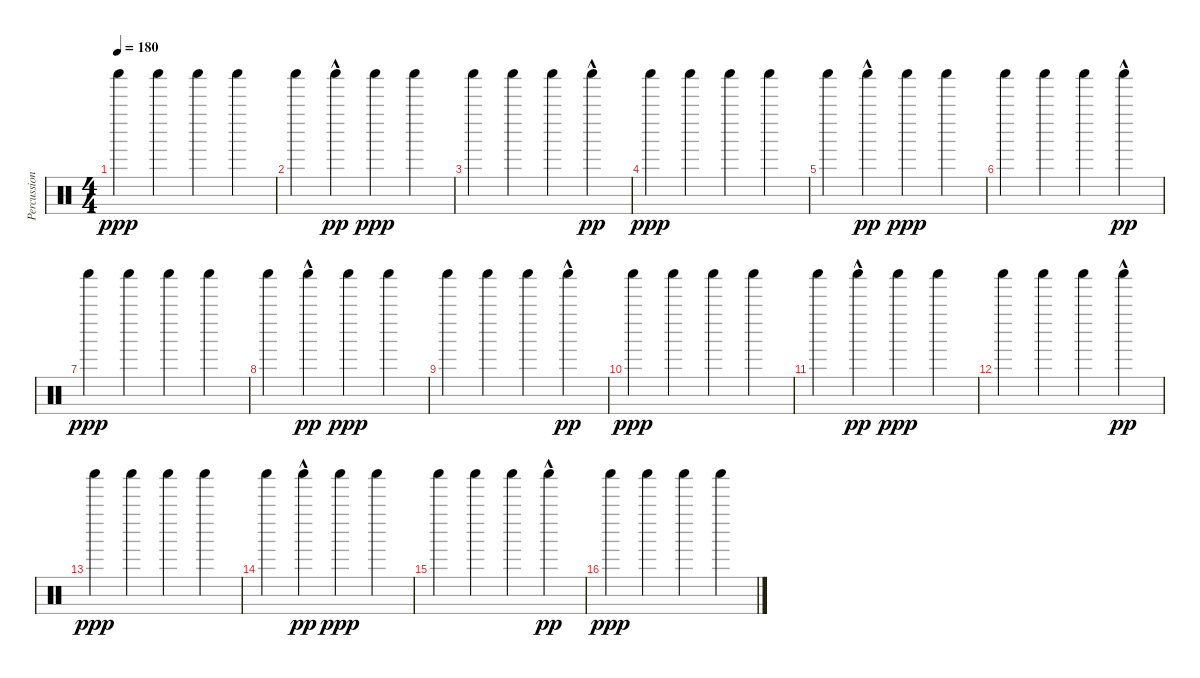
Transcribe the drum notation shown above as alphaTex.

\track ("Percussion" "Percussion") {instrument percussion}
\staff {score}
\articulation defaults
\ts (4 4)
\tempo 180
\clef neutral
\ks c "Shaker (hit)".4{dy ppp} "Shaker (hit)".4 "Shaker (hit)".4 "Shaker (hit)".4
|
"Shaker (hit)".4 "Shaker (hit)"{hac}.4{dy pp} "Shaker (hit)".4{dy ppp} "Shaker (hit)".4 |
"Shaker (hit)".4 "Shaker (hit)".4 "Shaker (hit)".4 "Shaker (hit)"{hac}.4{dy pp} |
"Shaker (hit)".4{dy ppp} "Shaker (hit)".4 "Shaker (hit)".4 "Shaker (hit)".4 |
"Shaker (hit)".4 "Shaker (hit)"{hac}.4{dy pp} "Shaker (hit)".4{dy ppp} "Shaker (hit)".4 |
"Shaker (hit)".4 "Shaker (hit)".4 "Shaker (hit)".4 "Shaker (hit)"{hac}.4{dy pp} |
"Shaker (hit)".4{dy ppp} "Shaker (hit)".4 "Shaker (hit)".4 "Shaker (hit)".4 |
"Shaker (hit)".4 "Shaker (hit)"{hac}.4{dy pp} "Shaker (hit)".4{dy ppp} "Shaker (hit)".4 |
"Shaker (hit)".4 "Shaker (hit)".4 "Shaker (hit)".4 "Shaker (hit)"{hac}.4{dy pp} |
"Shaker (hit)".4{dy ppp} "Shaker (hit)".4 "Shaker (hit)".4 "Shaker (hit)".4 |
"Shaker (hit)".4 "Shaker (hit)"{hac}.4{dy pp} "Shaker (hit)".4{dy ppp} "Shaker (hit)".4 |
"Shaker (hit)".4 "Shaker (hit)".4 "Shaker (hit)".4 "Shaker (hit)"{hac}.4{dy pp} |
"Shaker (hit)".4{dy ppp} "Shaker (hit)".4 "Shaker (hit)".4 "Shaker (hit)".4 |
"Shaker (hit)".4 "Shaker (hit)"{hac}.4{dy pp} "Shaker (hit)".4{dy ppp} "Shaker (hit)".4 |
"Shaker (hit)".4 "Shaker (hit)".4 "Shaker (hit)".4 "Shaker (hit)"{hac}.4{dy pp} |
"Shaker (hit)".4{dy ppp} "Shaker (hit)".4 "Shaker (hit)".4 "Shaker (hit)".4
